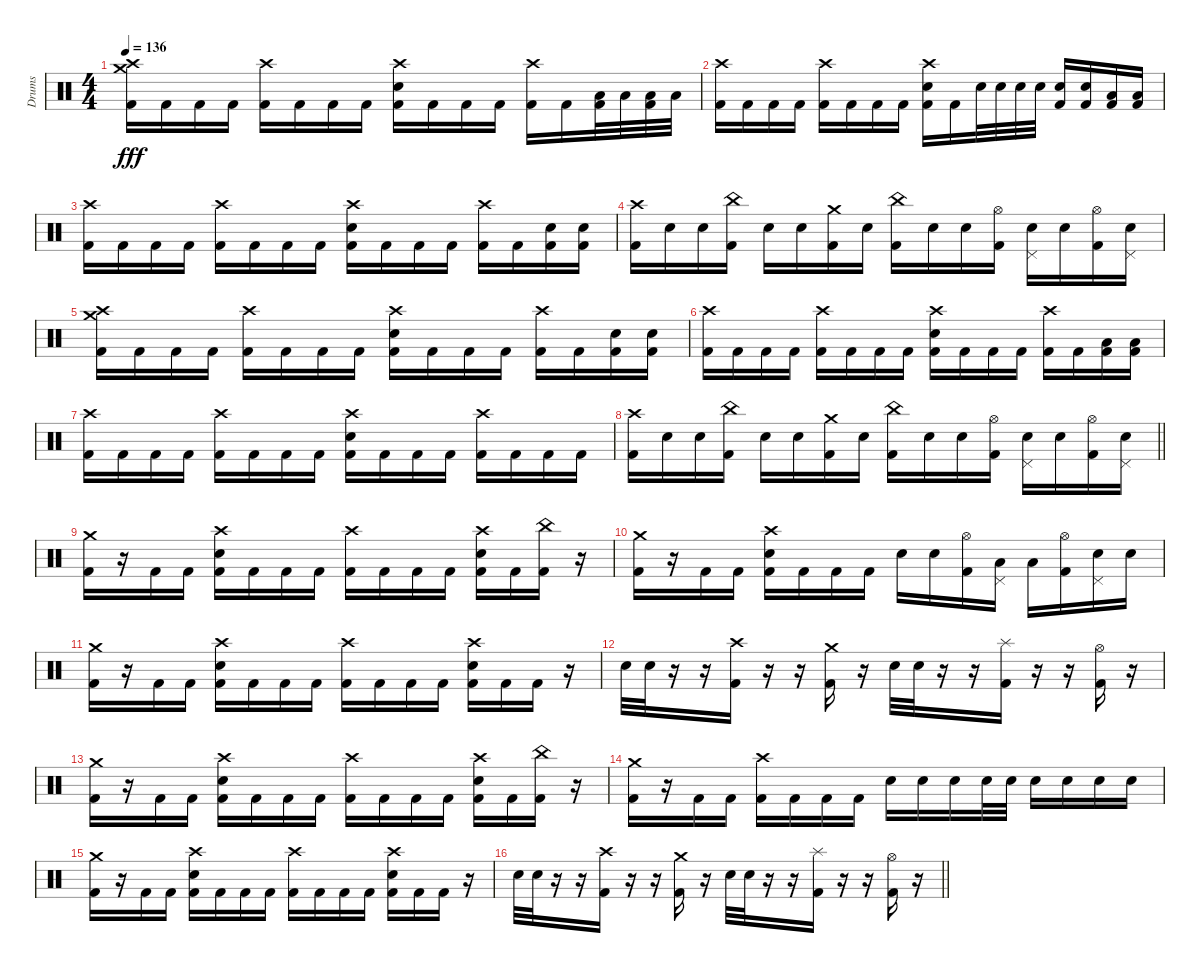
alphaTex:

\track ("Drums" "Drums") {instrument percussion}
\staff {score}
\articulation defaults
\ts (4 4)
\tempo 136
\clef neutral
\ks c
("Crash high (hit)" "Crash medium (hit)" "Kick (hit) 2").16{dy fff} "Kick (hit) 2".16 "Kick (hit) 2".16 "Kick (hit) 2".16 ("Crash high (hit)" "Kick (hit) 2").16 "Kick (hit) 2".16 "Kick (hit) 2".16 "Kick (hit) 2".16 ("Crash high (hit)" "Electric Snare (hit)" "Kick (hit) 2").16 "Kick (hit) 2".16 "Kick (hit) 2".16 "Kick (hit) 2".16 ("Crash high (hit)" "Kick (hit) 2").16 "Kick (hit) 2".16 ("Low Tom (hit)" "Kick (hit) 2").32 "Low Tom (hit)".32 ("Low Tom (hit)" "Kick (hit) 2").32 "Low Floor Tom (hit)".32 |
("Crash high (hit)" "Kick (hit) 2").16 "Kick (hit) 2".16 "Kick (hit) 2".16 "Kick (hit) 2".16 ("Crash high (hit)" "Kick (hit) 2").16 "Kick (hit) 2".16 "Kick (hit) 2".16 "Kick (hit) 2".16 ("Crash high (hit)" "Electric Snare (hit)" "Kick (hit) 2").16 "Kick (hit) 2".16 "Electric Snare (hit)".32 "Electric Snare (hit)".32 "Electric Snare (hit)".32 "Electric Snare (hit)".32 ("Electric Snare (hit)" "Kick (hit) 2").16 ("Electric Snare (hit)" "Kick (hit) 2").16 ("Low Tom (hit)" "Kick (hit) 2").16 ("Low Tom (hit)" "Kick (hit) 2").16 |
("Crash high (hit)" "Kick (hit) 2").16 "Kick (hit) 2".16 "Kick (hit) 2".16 "Kick (hit) 2".16 ("Crash high (hit)" "Kick (hit) 2").16 "Kick (hit) 2".16 "Kick (hit) 2".16 "Kick (hit) 2".16 ("Crash high (hit)" "Electric Snare (hit)" "Kick (hit) 2").16 "Kick (hit) 2".16 "Kick (hit) 2".16 "Kick (hit) 2".16 ("Crash high (hit)" "Kick (hit) 2").16 "Kick (hit) 2".16 ("Electric Snare (hit)" "Kick (hit) 2").16 ("Electric Snare (hit)" "Kick (hit) 2").16 |
("Crash high (hit)" "Kick (hit) 2").16 "Electric Snare (hit)".16 "Electric Snare (hit)".16 ("China (hit)" "Kick (hit) 2").16 "Electric Snare (hit)".16 "Electric Snare (hit)".16 ("Crash medium (hit)" "Kick (hit) 2").16 "Electric Snare (hit)".16 ("China (hit)" "Kick (hit) 2").16 "Electric Snare (hit)".16 "Electric Snare (hit)".16 ("Hi-Hat (open)" "Kick (hit) 2").16 ("Pedal Hi-Hat (hit)" "Electric Snare (hit)").16 "Electric Snare (hit)".16 ("Hi-Hat (open)" "Kick (hit) 2").16 ("Pedal Hi-Hat (hit)" "Electric Snare (hit)").16 |
("Crash high (hit)" "Crash medium (hit)" "Kick (hit) 2").16 "Kick (hit) 2".16 "Kick (hit) 2".16 "Kick (hit) 2".16 ("Crash high (hit)" "Kick (hit) 2").16 "Kick (hit) 2".16 "Kick (hit) 2".16 "Kick (hit) 2".16 ("Crash high (hit)" "Electric Snare (hit)" "Kick (hit) 2").16 "Kick (hit) 2".16 "Kick (hit) 2".16 "Kick (hit) 2".16 ("Crash high (hit)" "Kick (hit) 2").16 "Kick (hit) 2".16 ("Electric Snare (hit)" "Kick (hit) 2").16 ("Electric Snare (hit)" "Kick (hit) 2").16 |
("Crash high (hit)" "Kick (hit) 2").16 "Kick (hit) 2".16 "Kick (hit) 2".16 "Kick (hit) 2".16 ("Crash high (hit)" "Kick (hit) 2").16 "Kick (hit) 2".16 "Kick (hit) 2".16 "Kick (hit) 2".16 ("Crash high (hit)" "Electric Snare (hit)" "Kick (hit) 2").16 "Kick (hit) 2".16 "Kick (hit) 2".16 "Kick (hit) 2".16 ("Crash high (hit)" "Kick (hit) 2").16 "Kick (hit) 2".16 ("Low Tom (hit)" "Kick (hit) 2").16 ("Low Tom (hit)" "Kick (hit) 2").16 |
("Crash high (hit)" "Kick (hit) 2").16 "Kick (hit) 2".16 "Kick (hit) 2".16 "Kick (hit) 2".16 ("Crash high (hit)" "Kick (hit) 2").16 "Kick (hit) 2".16 "Kick (hit) 2".16 "Kick (hit) 2".16 ("Crash high (hit)" "Electric Snare (hit)" "Kick (hit) 2").16 "Kick (hit) 2".16 "Kick (hit) 2".16 "Kick (hit) 2".16 ("Crash high (hit)" "Kick (hit) 2").16 "Kick (hit) 2".16 "Kick (hit) 2".16 "Kick (hit) 2".16 |
\barLineRight lightlight
("Crash high (hit)" "Kick (hit) 2").16 "Electric Snare (hit)".16 "Electric Snare (hit)".16 ("China (hit)" "Kick (hit) 2").16 "Electric Snare (hit)".16 "Electric Snare (hit)".16 ("Crash medium (hit)" "Kick (hit) 2").16 "Electric Snare (hit)".16 ("China (hit)" "Kick (hit) 2").16 "Electric Snare (hit)".16 "Electric Snare (hit)".16 ("Hi-Hat (open)" "Kick (hit) 2").16 ("Pedal Hi-Hat (hit)" "Electric Snare (hit)").16 "Electric Snare (hit)".16 ("Hi-Hat (open)" "Kick (hit) 2").16 ("Pedal Hi-Hat (hit)" "Electric Snare (hit)").16 |
\section ("" "")
("Crash medium (hit)" "Kick (hit) 2").16 r.16 "Kick (hit) 2".16 "Kick (hit) 2".16 ("Crash high (hit)" "Electric Snare (hit)" "Kick (hit) 2").16 "Kick (hit) 2".16 "Kick (hit) 2".16 "Kick (hit) 2".16 ("Crash high (hit)" "Kick (hit) 2").16 "Kick (hit) 2".16 "Kick (hit) 2".16 "Kick (hit) 2".16 ("Crash high (hit)" "Electric Snare (hit)" "Kick (hit) 2").16 "Kick (hit) 2".16 ("China (hit)" "Kick (hit) 2").16 r.16 |
("Crash medium (hit)" "Kick (hit) 2").16 r.16 "Kick (hit) 2".16 "Kick (hit) 2".16 ("Crash high (hit)" "Electric Snare (hit)" "Kick (hit) 2").16 "Kick (hit) 2".16 "Kick (hit) 2".16 "Kick (hit) 2".16 "Electric Snare (hit)".16 "Electric Snare (hit)".16 ("Hi-Hat (open)" "Kick (hit) 2").16 ("Pedal Hi-Hat (hit)" "Low Floor Tom (hit)").16 "Low Floor Tom (hit)".16 ("Hi-Hat (open)" "Kick (hit) 2").16 ("Pedal Hi-Hat (hit)" "Electric Snare (hit)").16 "Electric Snare (hit)".16 |
("Crash medium (hit)" "Kick (hit) 2").16 r.16 "Kick (hit) 2".16 "Kick (hit) 2".16 ("Crash high (hit)" "Electric Snare (hit)" "Kick (hit) 2").16 "Kick (hit) 2".16 "Kick (hit) 2".16 "Kick (hit) 2".16 ("Crash high (hit)" "Kick (hit) 2").16 "Kick (hit) 2".16 "Kick (hit) 2".16 "Kick (hit) 2".16 ("Crash high (hit)" "Electric Snare (hit)" "Kick (hit) 2").16 "Kick (hit) 2".16 "Kick (hit) 2".16 r.16 |
"Electric Snare (hit)".32 "Electric Snare (hit)".32 r.16 r.16 ("Crash high (hit)" "Kick (hit) 2").16 r.16 r.16 ("Crash medium (hit)" "Kick (hit) 2").16 r.16 "Electric Snare (hit)".32 "Electric Snare (hit)".32 r.16 r.16 ("Splash (hit)" "Kick (hit) 2").16 r.16 r.16 ("Hi-Hat (open)" "Kick (hit) 2").16 r.16 |
("Crash medium (hit)" "Kick (hit) 2").16 r.16 "Kick (hit) 2".16 "Kick (hit) 2".16 ("Crash high (hit)" "Electric Snare (hit)" "Kick (hit) 2").16 "Kick (hit) 2".16 "Kick (hit) 2".16 "Kick (hit) 2".16 ("Crash high (hit)" "Kick (hit) 2").16 "Kick (hit) 2".16 "Kick (hit) 2".16 "Kick (hit) 2".16 ("Crash high (hit)" "Electric Snare (hit)" "Kick (hit) 2").16 "Kick (hit) 2".16 ("China (hit)" "Kick (hit) 2").16 r.16 |
("Crash medium (hit)" "Kick (hit) 2").16 r.16 "Kick (hit) 2".16 "Kick (hit) 2".16 ("Crash high (hit)" "Kick (hit) 2").16 "Kick (hit) 2".16 "Kick (hit) 2".16 "Kick (hit) 2".16 "Electric Snare (hit)".16 "Electric Snare (hit)".16 "Electric Snare (hit)".16 "Electric Snare (hit)".32 "Electric Snare (hit)".32 "Electric Snare (hit)".16 "Electric Snare (hit)".16 "Electric Snare (hit)".16 "Electric Snare (hit)".16 |
("Crash medium (hit)" "Kick (hit) 2").16 r.16 "Kick (hit) 2".16 "Kick (hit) 2".16 ("Crash high (hit)" "Electric Snare (hit)" "Kick (hit) 2").16 "Kick (hit) 2".16 "Kick (hit) 2".16 "Kick (hit) 2".16 ("Crash high (hit)" "Kick (hit) 2").16 "Kick (hit) 2".16 "Kick (hit) 2".16 "Kick (hit) 2".16 ("Crash high (hit)" "Electric Snare (hit)" "Kick (hit) 2").16 "Kick (hit) 2".16 "Kick (hit) 2".16 r.16 |
\barLineRight lightlight "Electric Snare (hit)".32 "Electric Snare (hit)".32
r.16 r.16 ("Crash high (hit)" "Kick (hit) 2").16 r.16 r.16 ("Crash medium (hit)" "Kick (hit) 2").16 r.16 "Electric Snare (hit)".32 "Electric Snare (hit)".32 r.16 r.16 ("Splash (hit)" "Kick (hit) 2").16 r.16 r.16 ("Hi-Hat (open)" "Kick (hit) 2").16 r.16
